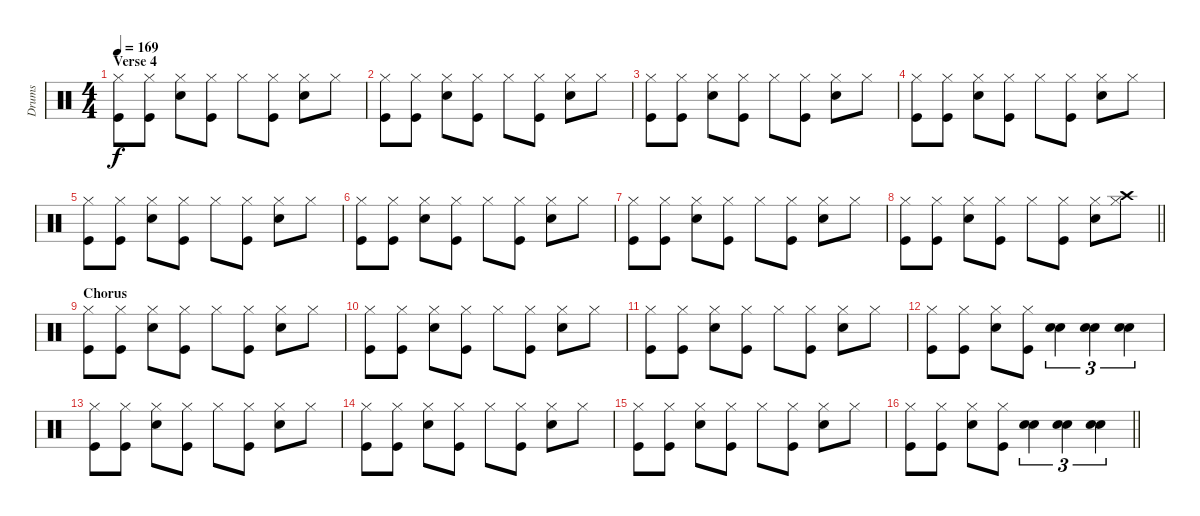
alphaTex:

\track ("Drums" "Drums") {instrument percussion}
\staff {score}
\articulation defaults
\ts (4 4)
\section ("" "Verse 4")
\tempo 169
\clef neutral
\ks c
("Hi-Hat (closed)" "Kick (hit)").8{dy f} ("Hi-Hat (closed)" "Kick (hit)").8 ("Hi-Hat (closed)" "Snare (hit) 2").8 ("Hi-Hat (closed)" "Kick (hit)").8 "Hi-Hat (closed)".8 ("Hi-Hat (closed)" "Kick (hit)").8 ("Hi-Hat (closed)" "Snare (hit) 2").8 "Hi-Hat (closed)".8 |
("Hi-Hat (closed)" "Kick (hit)").8 ("Hi-Hat (closed)" "Kick (hit)").8 ("Hi-Hat (closed)" "Snare (hit) 2").8 ("Hi-Hat (closed)" "Kick (hit)").8 "Hi-Hat (closed)".8 ("Hi-Hat (closed)" "Kick (hit)").8 ("Hi-Hat (closed)" "Snare (hit) 2").8 "Hi-Hat (closed)".8 |
("Hi-Hat (closed)" "Kick (hit)").8 ("Hi-Hat (closed)" "Kick (hit)").8 ("Hi-Hat (closed)" "Snare (hit) 2").8 ("Hi-Hat (closed)" "Kick (hit)").8 "Hi-Hat (closed)".8 ("Hi-Hat (closed)" "Kick (hit)").8 ("Hi-Hat (closed)" "Snare (hit) 2").8 "Hi-Hat (closed)".8 |
("Hi-Hat (closed)" "Kick (hit)").8 ("Hi-Hat (closed)" "Kick (hit)").8 ("Hi-Hat (closed)" "Snare (hit) 2").8 ("Hi-Hat (closed)" "Kick (hit)").8 "Hi-Hat (closed)".8 ("Hi-Hat (closed)" "Kick (hit)").8 ("Hi-Hat (closed)" "Snare (hit) 2").8 "Hi-Hat (closed)".8 |
("Hi-Hat (closed)" "Kick (hit)").8 ("Hi-Hat (closed)" "Kick (hit)").8 ("Hi-Hat (closed)" "Snare (hit) 2").8 ("Hi-Hat (closed)" "Kick (hit)").8 "Hi-Hat (closed)".8 ("Hi-Hat (closed)" "Kick (hit)").8 ("Hi-Hat (closed)" "Snare (hit) 2").8 "Hi-Hat (closed)".8 |
("Hi-Hat (closed)" "Kick (hit)").8 ("Hi-Hat (closed)" "Kick (hit)").8 ("Hi-Hat (closed)" "Snare (hit) 2").8 ("Hi-Hat (closed)" "Kick (hit)").8 "Hi-Hat (closed)".8 ("Hi-Hat (closed)" "Kick (hit)").8 ("Hi-Hat (closed)" "Snare (hit) 2").8 "Hi-Hat (closed)".8 |
("Hi-Hat (closed)" "Kick (hit)").8 ("Hi-Hat (closed)" "Kick (hit)").8 ("Hi-Hat (closed)" "Snare (hit) 2").8 ("Hi-Hat (closed)" "Kick (hit)").8 "Hi-Hat (closed)".8 ("Hi-Hat (closed)" "Kick (hit)").8 ("Hi-Hat (closed)" "Snare (hit) 2").8 "Hi-Hat (closed)".8 |
\barLineRight lightlight
("Hi-Hat (closed)" "Kick (hit)").8 ("Hi-Hat (closed)" "Kick (hit)").8 ("Hi-Hat (closed)" "Snare (hit) 2").8 ("Hi-Hat (closed)" "Kick (hit)").8 "Hi-Hat (closed)".8 ("Hi-Hat (closed)" "Kick (hit)").8 ("Hi-Hat (closed)" "Snare (hit) 2").8 ("Hi-Hat (closed)" "Crash high (hit)").8 |
\section ("" "Chorus")
("Hi-Hat (closed)" "Kick (hit)").8 ("Hi-Hat (closed)" "Kick (hit)").8 ("Hi-Hat (closed)" "Snare (hit) 2").8 ("Hi-Hat (closed)" "Kick (hit)").8 "Hi-Hat (closed)".8 ("Hi-Hat (closed)" "Kick (hit)").8 ("Hi-Hat (closed)" "Snare (hit) 2").8 "Hi-Hat (closed)".8 |
("Hi-Hat (closed)" "Kick (hit)").8 ("Hi-Hat (closed)" "Kick (hit)").8 ("Hi-Hat (closed)" "Snare (hit) 2").8 ("Hi-Hat (closed)" "Kick (hit)").8 "Hi-Hat (closed)".8 ("Hi-Hat (closed)" "Kick (hit)").8 ("Hi-Hat (closed)" "Snare (hit) 2").8 "Hi-Hat (closed)".8 |
("Hi-Hat (closed)" "Kick (hit)").8 ("Hi-Hat (closed)" "Kick (hit)").8 ("Hi-Hat (closed)" "Snare (hit) 2").8 ("Hi-Hat (closed)" "Kick (hit)").8 "Hi-Hat (closed)".8 ("Hi-Hat (closed)" "Kick (hit)").8 ("Hi-Hat (closed)" "Snare (hit) 2").8 "Hi-Hat (closed)".8 |
("Hi-Hat (closed)" "Kick (hit)").8 ("Hi-Hat (closed)" "Kick (hit)").8 ("Hi-Hat (closed)" "Snare (hit) 2").8 ("Hi-Hat (closed)" "Kick (hit)").8 ("Snare (hit) 2" "Snare (hit) 2").4{tu (3 2)} ("Snare (hit) 2" "Snare (hit) 2").4{tu (3 2)} ("Snare (hit) 2" "Snare (hit) 2").4{tu (3 2)} |
("Hi-Hat (closed)" "Kick (hit)").8 ("Hi-Hat (closed)" "Kick (hit)").8 ("Hi-Hat (closed)" "Snare (hit) 2").8 ("Hi-Hat (closed)" "Kick (hit)").8 "Hi-Hat (closed)".8 ("Hi-Hat (closed)" "Kick (hit)").8 ("Hi-Hat (closed)" "Snare (hit) 2").8 "Hi-Hat (closed)".8 |
("Hi-Hat (closed)" "Kick (hit)").8 ("Hi-Hat (closed)" "Kick (hit)").8 ("Hi-Hat (closed)" "Snare (hit) 2").8 ("Hi-Hat (closed)" "Kick (hit)").8 "Hi-Hat (closed)".8 ("Hi-Hat (closed)" "Kick (hit)").8 ("Hi-Hat (closed)" "Snare (hit) 2").8 "Hi-Hat (closed)".8 |
("Hi-Hat (closed)" "Kick (hit)").8 ("Hi-Hat (closed)" "Kick (hit)").8 ("Hi-Hat (closed)" "Snare (hit) 2").8 ("Hi-Hat (closed)" "Kick (hit)").8 "Hi-Hat (closed)".8 ("Hi-Hat (closed)" "Kick (hit)").8 ("Hi-Hat (closed)" "Snare (hit) 2").8 "Hi-Hat (closed)".8 |
\barLineRight lightlight
("Hi-Hat (closed)" "Kick (hit)").8 ("Hi-Hat (closed)" "Kick (hit)").8 ("Hi-Hat (closed)" "Snare (hit) 2").8 ("Hi-Hat (closed)" "Kick (hit)").8 ("Snare (hit) 2" "Snare (hit) 2").4{tu (3 2)} ("Snare (hit) 2" "Snare (hit) 2").4{tu (3 2)} ("Snare (hit) 2" "Snare (hit) 2").4{tu (3 2)}
